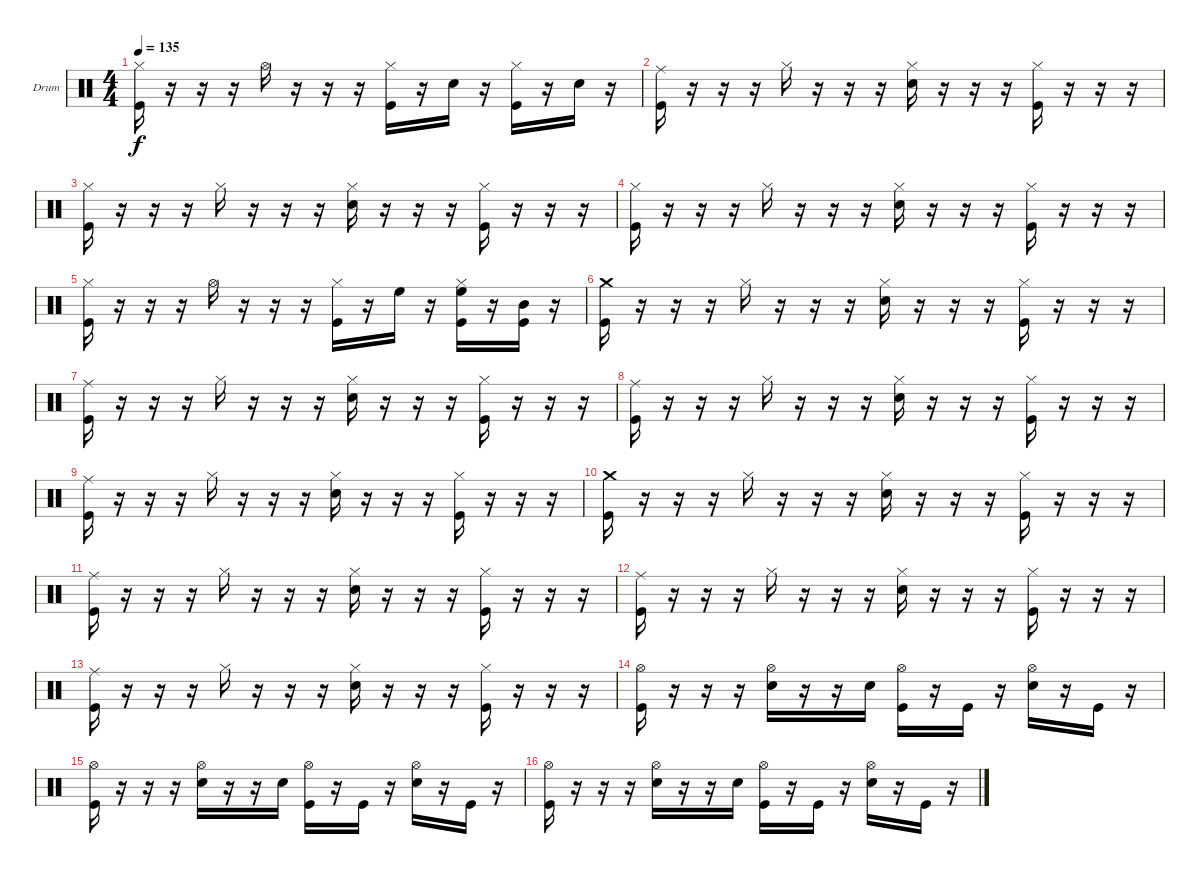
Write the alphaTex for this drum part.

\defaultSystemsLayout 4
\bracketExtendMode groupsimilarinstruments
\firstSystemTrackNameOrientation horizontal
\otherSystemsTrackNameOrientation horizontal
\track ("Drum" "Drum") {instrument percussion}
\staff {score}
\articulation defaults
\ts (4 4)
\tempo 135
\clef neutral
\ks c
("Hi-Hat (closed)" "Kick (hit)").16{dy f} r.16 r.16 r.16 "Hi-Hat (open)".16 r.16 r.16 r.16 ("Hi-Hat (closed)" "Kick (hit)").16 r.16 "Snare (hit) 2".16 r.16 ("Hi-Hat (closed)" "Kick (hit)").16 r.16 "Snare (hit) 2".16 r.16 |
("Ride (middle)" "Kick (hit)").16 r.16 r.16 r.16 "Hi-Hat (closed)".16 r.16 r.16 r.16 ("Hi-Hat (closed)" "Snare (hit) 2").16 r.16 r.16 r.16 ("Hi-Hat (closed)" "Kick (hit)").16 r.16 r.16 r.16 |
("Hi-Hat (closed)" "Kick (hit)").16 r.16 r.16 r.16 "Hi-Hat (closed)".16 r.16 r.16 r.16 ("Hi-Hat (closed)" "Snare (hit) 2").16 r.16 r.16 r.16 ("Hi-Hat (closed)" "Kick (hit)").16 r.16 r.16 r.16 |
("Hi-Hat (closed)" "Kick (hit)").16 r.16 r.16 r.16 "Hi-Hat (closed)".16 r.16 r.16 r.16 ("Hi-Hat (closed)" "Snare (hit) 2").16 r.16 r.16 r.16 ("Hi-Hat (closed)" "Kick (hit)").16 r.16 r.16 r.16 |
("Hi-Hat (closed)" "Kick (hit)").16 r.16 r.16 r.16 "Hi-Hat (open)".16 r.16 r.16 r.16 ("Hi-Hat (closed)" "Kick (hit)").16 r.16 "High Floor Tom (hit)".16 r.16 ("Hi-Hat (closed)" "High Floor Tom (hit)" "Kick (hit)").16 r.16 ("Mid Tom (hit)" "Kick (hit)").16 r.16 |
("Crash medium (hit)" "Kick (hit)").16 r.16 r.16 r.16 "Hi-Hat (closed)".16 r.16 r.16 r.16 ("Hi-Hat (closed)" "Snare (hit) 2").16 r.16 r.16 r.16 ("Hi-Hat (closed)" "Kick (hit)").16 r.16 r.16 r.16 |
("Ride (middle)" "Kick (hit)").16 r.16 r.16 r.16 "Hi-Hat (closed)".16 r.16 r.16 r.16 ("Hi-Hat (closed)" "Snare (hit) 2").16 r.16 r.16 r.16 ("Hi-Hat (closed)" "Kick (hit)").16 r.16 r.16 r.16 |
("Ride (middle)" "Kick (hit)").16 r.16 r.16 r.16 "Hi-Hat (closed)".16 r.16 r.16 r.16 ("Hi-Hat (closed)" "Snare (hit) 2").16 r.16 r.16 r.16 ("Hi-Hat (closed)" "Kick (hit)").16 r.16 r.16 r.16 |
("Ride (middle)" "Kick (hit)").16 r.16 r.16 r.16 "Hi-Hat (closed)".16 r.16 r.16 r.16 ("Hi-Hat (closed)" "Snare (hit) 2").16 r.16 r.16 r.16 ("Hi-Hat (closed)" "Kick (hit)").16 r.16 r.16 r.16 |
("Crash medium (hit)" "Kick (hit)").16 r.16 r.16 r.16 "Hi-Hat (closed)".16 r.16 r.16 r.16 ("Hi-Hat (closed)" "Snare (hit) 2").16 r.16 r.16 r.16 ("Hi-Hat (closed)" "Kick (hit)").16 r.16 r.16 r.16 |
("Ride (middle)" "Kick (hit)").16 r.16 r.16 r.16 "Hi-Hat (closed)".16 r.16 r.16 r.16 ("Hi-Hat (closed)" "Snare (hit) 2").16 r.16 r.16 r.16 ("Hi-Hat (closed)" "Kick (hit)").16 r.16 r.16 r.16 |
("Ride (middle)" "Kick (hit)").16 r.16 r.16 r.16 "Hi-Hat (closed)".16 r.16 r.16 r.16 ("Hi-Hat (closed)" "Snare (hit) 2").16 r.16 r.16 r.16 ("Hi-Hat (closed)" "Kick (hit)").16 r.16 r.16 r.16 |
("Ride (middle)" "Kick (hit)").16 r.16 r.16 r.16 "Hi-Hat (closed)".16 r.16 r.16 r.16 ("Hi-Hat (closed)" "Snare (hit) 2").16 r.16 r.16 r.16 ("Hi-Hat (closed)" "Kick (hit)").16 r.16 r.16 r.16 |
("Hi-Hat (open)" "Kick (hit)").16 r.16 r.16 r.16 ("Hi-Hat (open)" "Snare (hit) 2").16 r.16 r.16 "Snare (hit) 2".16 ("Hi-Hat (open)" "Kick (hit)").16 r.16 "Kick (hit)".16 r.16 ("Hi-Hat (open)" "Snare (hit) 2").16 r.16 "Kick (hit)".16 r.16 |
("Hi-Hat (open)" "Kick (hit)").16 r.16 r.16 r.16 ("Hi-Hat (open)" "Snare (hit) 2").16 r.16 r.16 "Snare (hit) 2".16 ("Hi-Hat (open)" "Kick (hit)").16 r.16 "Kick (hit)".16 r.16 ("Hi-Hat (open)" "Snare (hit) 2").16 r.16 "Kick (hit)".16 r.16 |
("Hi-Hat (open)" "Kick (hit)").16 r.16 r.16 r.16 ("Hi-Hat (open)" "Snare (hit) 2").16 r.16 r.16 "Snare (hit) 2".16 ("Hi-Hat (open)" "Kick (hit)").16 r.16 "Kick (hit)".16 r.16 ("Hi-Hat (open)" "Snare (hit) 2").16 r.16 "Kick (hit)".16 r.16
